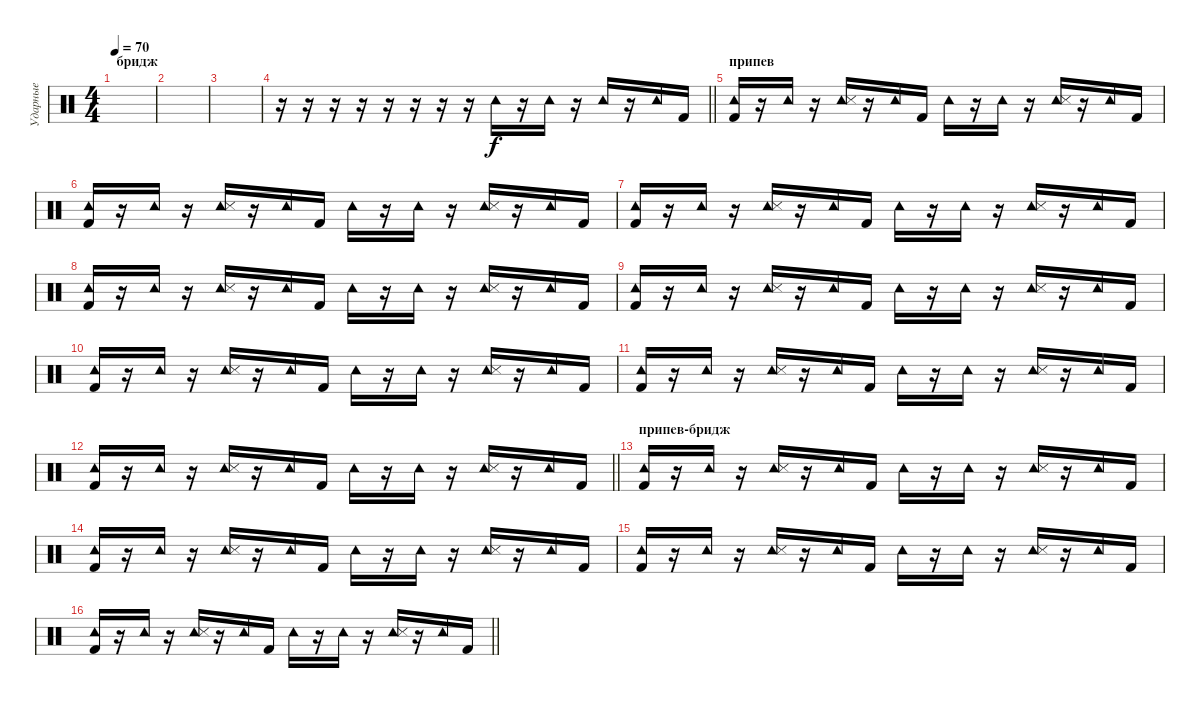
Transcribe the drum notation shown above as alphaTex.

\track ("Ударные" "Ударные") {instrument percussion}
\staff {score}
\articulation defaults
\ts (4 4)
\section ("" "бридж")
\tempo 70
\clef neutral
\ks c
|
|
|
\barLineRight lightlight
r.16 r.16 r.16 r.16 r.16 r.16 r.16 r.16 "Tambourine (hit)".16 r.16 "Tambourine (hit)".16 r.16 "Tambourine (hit)".16 r.16 "Tambourine (hit)".16 "Kick (hit) 2".16 |
\section ("" "припев")
("Tambourine (hit)" "Kick (hit) 2").16 r.16 "Tambourine (hit)".16 r.16 ("Tambourine (hit)" "Snare (side stick) 3").16 r.16 "Tambourine (hit)".16 "Kick (hit) 2".16 "Tambourine (hit)".16 r.16 "Tambourine (hit)".16 r.16 ("Tambourine (hit)" "Snare (side stick) 3").16 r.16 "Tambourine (hit)".16 "Kick (hit) 2".16 |
("Tambourine (hit)" "Kick (hit) 2").16 r.16 "Tambourine (hit)".16 r.16 ("Tambourine (hit)" "Snare (side stick) 3").16 r.16 "Tambourine (hit)".16 "Kick (hit) 2".16 "Tambourine (hit)".16 r.16 "Tambourine (hit)".16 r.16 ("Tambourine (hit)" "Snare (side stick) 3").16 r.16 "Tambourine (hit)".16 "Kick (hit) 2".16 |
("Tambourine (hit)" "Kick (hit) 2").16 r.16 "Tambourine (hit)".16 r.16 ("Tambourine (hit)" "Snare (side stick) 3").16 r.16 "Tambourine (hit)".16 "Kick (hit) 2".16 "Tambourine (hit)".16 r.16 "Tambourine (hit)".16 r.16 ("Tambourine (hit)" "Snare (side stick) 3").16 r.16 "Tambourine (hit)".16 "Kick (hit) 2".16 |
("Tambourine (hit)" "Kick (hit) 2").16 r.16 "Tambourine (hit)".16 r.16 ("Tambourine (hit)" "Snare (side stick) 3").16 r.16 "Tambourine (hit)".16 "Kick (hit) 2".16 "Tambourine (hit)".16 r.16 "Tambourine (hit)".16 r.16 ("Tambourine (hit)" "Snare (side stick) 3").16 r.16 "Tambourine (hit)".16 "Kick (hit) 2".16 |
("Tambourine (hit)" "Kick (hit) 2").16 r.16 "Tambourine (hit)".16 r.16 ("Tambourine (hit)" "Snare (side stick) 3").16 r.16 "Tambourine (hit)".16 "Kick (hit) 2".16 "Tambourine (hit)".16 r.16 "Tambourine (hit)".16 r.16 ("Tambourine (hit)" "Snare (side stick) 3").16 r.16 "Tambourine (hit)".16 "Kick (hit) 2".16 |
("Tambourine (hit)" "Kick (hit) 2").16 r.16 "Tambourine (hit)".16 r.16 ("Tambourine (hit)" "Snare (side stick) 3").16 r.16 "Tambourine (hit)".16 "Kick (hit) 2".16 "Tambourine (hit)".16 r.16 "Tambourine (hit)".16 r.16 ("Tambourine (hit)" "Snare (side stick) 3").16 r.16 "Tambourine (hit)".16 "Kick (hit) 2".16 |
("Tambourine (hit)" "Kick (hit) 2").16 r.16 "Tambourine (hit)".16 r.16 ("Tambourine (hit)" "Snare (side stick) 3").16 r.16 "Tambourine (hit)".16 "Kick (hit) 2".16 "Tambourine (hit)".16 r.16 "Tambourine (hit)".16 r.16 ("Tambourine (hit)" "Snare (side stick) 3").16 r.16 "Tambourine (hit)".16 "Kick (hit) 2".16 |
\barLineRight lightlight
("Tambourine (hit)" "Kick (hit) 2").16 r.16 "Tambourine (hit)".16 r.16 ("Tambourine (hit)" "Snare (side stick) 3").16 r.16 "Tambourine (hit)".16 "Kick (hit) 2".16 "Tambourine (hit)".16 r.16 "Tambourine (hit)".16 r.16 ("Tambourine (hit)" "Snare (side stick) 3").16 r.16 "Tambourine (hit)".16 "Kick (hit) 2".16 |
\section ("" "припев-бридж")
("Tambourine (hit)" "Kick (hit) 2").16 r.16 "Tambourine (hit)".16 r.16 ("Tambourine (hit)" "Snare (side stick) 3").16 r.16 "Tambourine (hit)".16 "Kick (hit) 2".16 "Tambourine (hit)".16 r.16 "Tambourine (hit)".16 r.16 ("Tambourine (hit)" "Snare (side stick) 3").16 r.16 "Tambourine (hit)".16 "Kick (hit) 2".16 |
("Tambourine (hit)" "Kick (hit) 2").16 r.16 "Tambourine (hit)".16 r.16 ("Tambourine (hit)" "Snare (side stick) 3").16 r.16 "Tambourine (hit)".16 "Kick (hit) 2".16 "Tambourine (hit)".16 r.16 "Tambourine (hit)".16 r.16 ("Tambourine (hit)" "Snare (side stick) 3").16 r.16 "Tambourine (hit)".16 "Kick (hit) 2".16 |
("Tambourine (hit)" "Kick (hit) 2").16 r.16 "Tambourine (hit)".16 r.16 ("Tambourine (hit)" "Snare (side stick) 3").16 r.16 "Tambourine (hit)".16 "Kick (hit) 2".16 "Tambourine (hit)".16 r.16 "Tambourine (hit)".16 r.16 ("Tambourine (hit)" "Snare (side stick) 3").16 r.16 "Tambourine (hit)".16 "Kick (hit) 2".16 |
\barLineRight lightlight
("Tambourine (hit)" "Kick (hit) 2").16 r.16 "Tambourine (hit)".16 r.16 ("Tambourine (hit)" "Snare (side stick) 3").16 r.16 "Tambourine (hit)".16 "Kick (hit) 2".16 "Tambourine (hit)".16 r.16 "Tambourine (hit)".16 r.16 ("Tambourine (hit)" "Snare (side stick) 3").16 r.16 "Tambourine (hit)".16 "Kick (hit) 2".16
